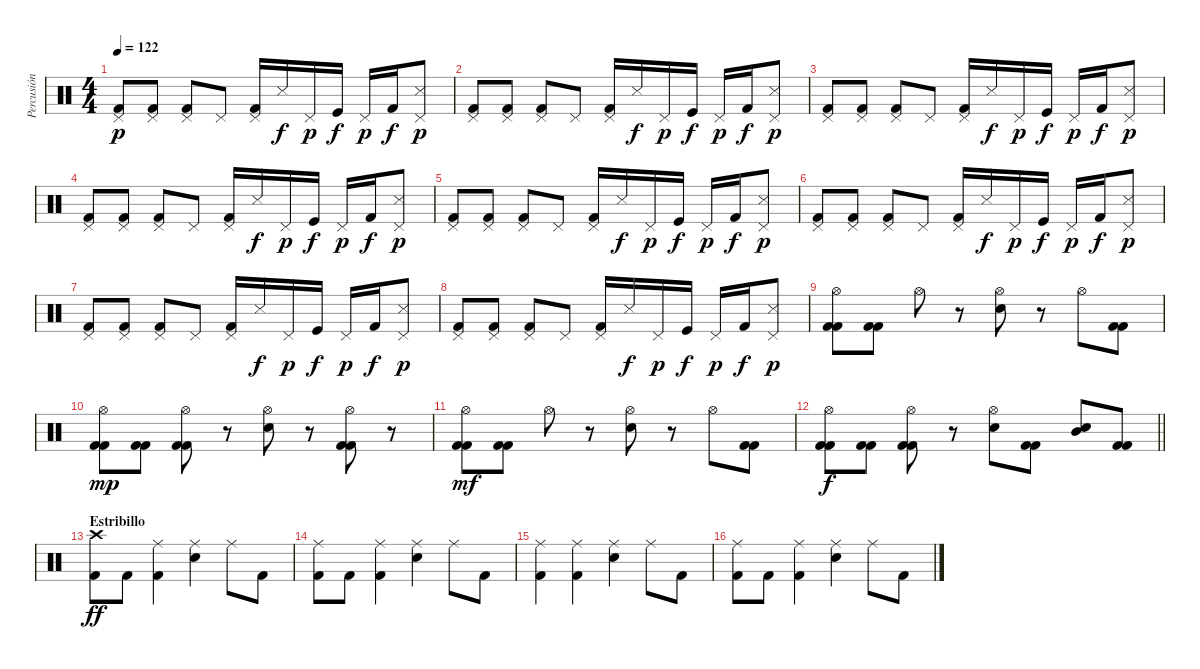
\track ("Percusión" "Percusión") {instrument percussion}
\staff {score}
\articulation defaults
\ts (4 4)
\tempo 122
\clef neutral
\ks c
("Pedal Hi-Hat (hit)" "Kick (hit) 2").8{dy p} ("Pedal Hi-Hat (hit)" "Kick (hit) 2").8 ("Pedal Hi-Hat (hit)" "Kick (hit) 2").8 "Pedal Hi-Hat (hit)".8 ("Pedal Hi-Hat (hit)" "Kick (hit) 2").16 "Snare (side stick) 3".16{dy f} "Pedal Hi-Hat (hit)".16{dy p} "Kick (hit)".16{dy f} "Pedal Hi-Hat (hit)".16{dy p} "Kick (hit) 2".16{dy f} ("Pedal Hi-Hat (hit)" "Snare (side stick) 3").8{dy p} |
("Pedal Hi-Hat (hit)" "Kick (hit) 2").8 ("Pedal Hi-Hat (hit)" "Kick (hit) 2").8 ("Pedal Hi-Hat (hit)" "Kick (hit) 2").8 "Pedal Hi-Hat (hit)".8 ("Pedal Hi-Hat (hit)" "Kick (hit) 2").16 "Snare (side stick) 3".16{dy f} "Pedal Hi-Hat (hit)".16{dy p} "Kick (hit)".16{dy f} "Pedal Hi-Hat (hit)".16{dy p} "Kick (hit) 2".16{dy f} ("Pedal Hi-Hat (hit)" "Snare (side stick) 3").8{dy p} |
("Pedal Hi-Hat (hit)" "Kick (hit) 2").8 ("Pedal Hi-Hat (hit)" "Kick (hit) 2").8 ("Pedal Hi-Hat (hit)" "Kick (hit) 2").8 "Pedal Hi-Hat (hit)".8 ("Pedal Hi-Hat (hit)" "Kick (hit) 2").16 "Snare (side stick) 3".16{dy f} "Pedal Hi-Hat (hit)".16{dy p} "Kick (hit)".16{dy f} "Pedal Hi-Hat (hit)".16{dy p} "Kick (hit) 2".16{dy f} ("Pedal Hi-Hat (hit)" "Snare (side stick) 3").8{dy p} |
("Pedal Hi-Hat (hit)" "Kick (hit) 2").8 ("Pedal Hi-Hat (hit)" "Kick (hit) 2").8 ("Pedal Hi-Hat (hit)" "Kick (hit) 2").8 "Pedal Hi-Hat (hit)".8 ("Pedal Hi-Hat (hit)" "Kick (hit) 2").16 "Snare (side stick) 3".16{dy f} "Pedal Hi-Hat (hit)".16{dy p} "Kick (hit)".16{dy f} "Pedal Hi-Hat (hit)".16{dy p} "Kick (hit) 2".16{dy f} ("Pedal Hi-Hat (hit)" "Snare (side stick) 3").8{dy p} |
("Pedal Hi-Hat (hit)" "Kick (hit) 2").8 ("Pedal Hi-Hat (hit)" "Kick (hit) 2").8 ("Pedal Hi-Hat (hit)" "Kick (hit) 2").8 "Pedal Hi-Hat (hit)".8 ("Pedal Hi-Hat (hit)" "Kick (hit) 2").16 "Snare (side stick) 3".16{dy f} "Pedal Hi-Hat (hit)".16{dy p} "Kick (hit)".16{dy f} "Pedal Hi-Hat (hit)".16{dy p} "Kick (hit) 2".16{dy f} ("Pedal Hi-Hat (hit)" "Snare (side stick) 3").8{dy p} |
("Pedal Hi-Hat (hit)" "Kick (hit) 2").8 ("Pedal Hi-Hat (hit)" "Kick (hit) 2").8 ("Pedal Hi-Hat (hit)" "Kick (hit) 2").8 "Pedal Hi-Hat (hit)".8 ("Pedal Hi-Hat (hit)" "Kick (hit) 2").16 "Snare (side stick) 3".16{dy f} "Pedal Hi-Hat (hit)".16{dy p} "Kick (hit)".16{dy f} "Pedal Hi-Hat (hit)".16{dy p} "Kick (hit) 2".16{dy f} ("Pedal Hi-Hat (hit)" "Snare (side stick) 3").8{dy p} |
("Pedal Hi-Hat (hit)" "Kick (hit) 2").8 ("Pedal Hi-Hat (hit)" "Kick (hit) 2").8 ("Pedal Hi-Hat (hit)" "Kick (hit) 2").8 "Pedal Hi-Hat (hit)".8 ("Pedal Hi-Hat (hit)" "Kick (hit) 2").16 "Snare (side stick) 3".16{dy f} "Pedal Hi-Hat (hit)".16{dy p} "Kick (hit)".16{dy f} "Pedal Hi-Hat (hit)".16{dy p} "Kick (hit) 2".16{dy f} ("Pedal Hi-Hat (hit)" "Snare (side stick) 3").8{dy p} |
("Pedal Hi-Hat (hit)" "Kick (hit) 2").8 ("Pedal Hi-Hat (hit)" "Kick (hit) 2").8 ("Pedal Hi-Hat (hit)" "Kick (hit) 2").8 "Pedal Hi-Hat (hit)".8 ("Pedal Hi-Hat (hit)" "Kick (hit) 2").16 "Snare (side stick) 3".16{dy f} "Pedal Hi-Hat (hit)".16{dy p} "Kick (hit)".16{dy f} "Pedal Hi-Hat (hit)".16{dy p} "Kick (hit) 2".16{dy f} ("Pedal Hi-Hat (hit)" "Snare (side stick) 3").8{dy p} |
("Hi-Hat (open)" "Kick (hit) 2" "Kick (hit) 2").8 ("Kick (hit) 2" "Kick (hit) 2").8 "Hi-Hat (open)".8 r.8 ("Hi-Hat (open)" "Snare (hit) 2").8 r.8 "Hi-Hat (open)".8 ("Kick (hit) 2" "Kick (hit) 2").8 |
("Hi-Hat (open)" "Kick (hit) 2" "Kick (hit) 2").8{dy mp} ("Kick (hit) 2" "Kick (hit) 2").8 ("Hi-Hat (open)" "Kick (hit) 2" "Kick (hit) 2").8 r.8 ("Hi-Hat (open)" "Snare (hit) 2").8 r.8 ("Hi-Hat (open)" "Kick (hit) 2" "Kick (hit) 2").8 r.8 |
("Hi-Hat (open)" "Kick (hit) 2" "Kick (hit) 2").8{dy mf} ("Kick (hit) 2" "Kick (hit) 2").8 "Hi-Hat (open)".8 r.8 ("Hi-Hat (open)" "Snare (hit) 2").8 r.8 "Hi-Hat (open)".8 ("Kick (hit) 2" "Kick (hit) 2").8 |
\barLineRight lightlight
("Hi-Hat (open)" "Kick (hit) 2" "Kick (hit) 2").8{dy f} ("Kick (hit) 2" "Kick (hit) 2").8 ("Hi-Hat (open)" "Kick (hit) 2" "Kick (hit) 2").8 r.8 ("Hi-Hat (open)" "Snare (hit) 2").8 ("Kick (hit) 2" "Kick (hit) 2").8 ("Mid Tom (hit)" "Snare (hit) 2").8 ("Kick (hit) 2" "Kick (hit) 2").8 |
\section ("" "Estribillo")
("Crash high (hit)" "Kick (hit) 2").8{dy ff} "Kick (hit) 2".8 ("Ride (middle)" "Kick (hit) 2").4 ("Ride (middle)" "Snare (hit) 2").4 "Ride (middle)".8 "Kick (hit) 2".8 |
("Ride (middle)" "Kick (hit) 2").8 "Kick (hit) 2".8 ("Ride (middle)" "Kick (hit) 2").4 ("Ride (middle)" "Snare (hit) 2").4 "Ride (middle)".8 "Kick (hit) 2".8 |
("Ride (middle)" "Kick (hit) 2").4 ("Ride (middle)" "Kick (hit) 2").4 ("Ride (middle)" "Snare (hit) 2").4 "Ride (middle)".8 "Kick (hit) 2".8 |
("Ride (middle)" "Kick (hit) 2").8 "Kick (hit) 2".8 ("Ride (middle)" "Kick (hit) 2").4 ("Ride (middle)" "Snare (hit) 2").4 "Ride (middle)".8 "Kick (hit) 2".8
